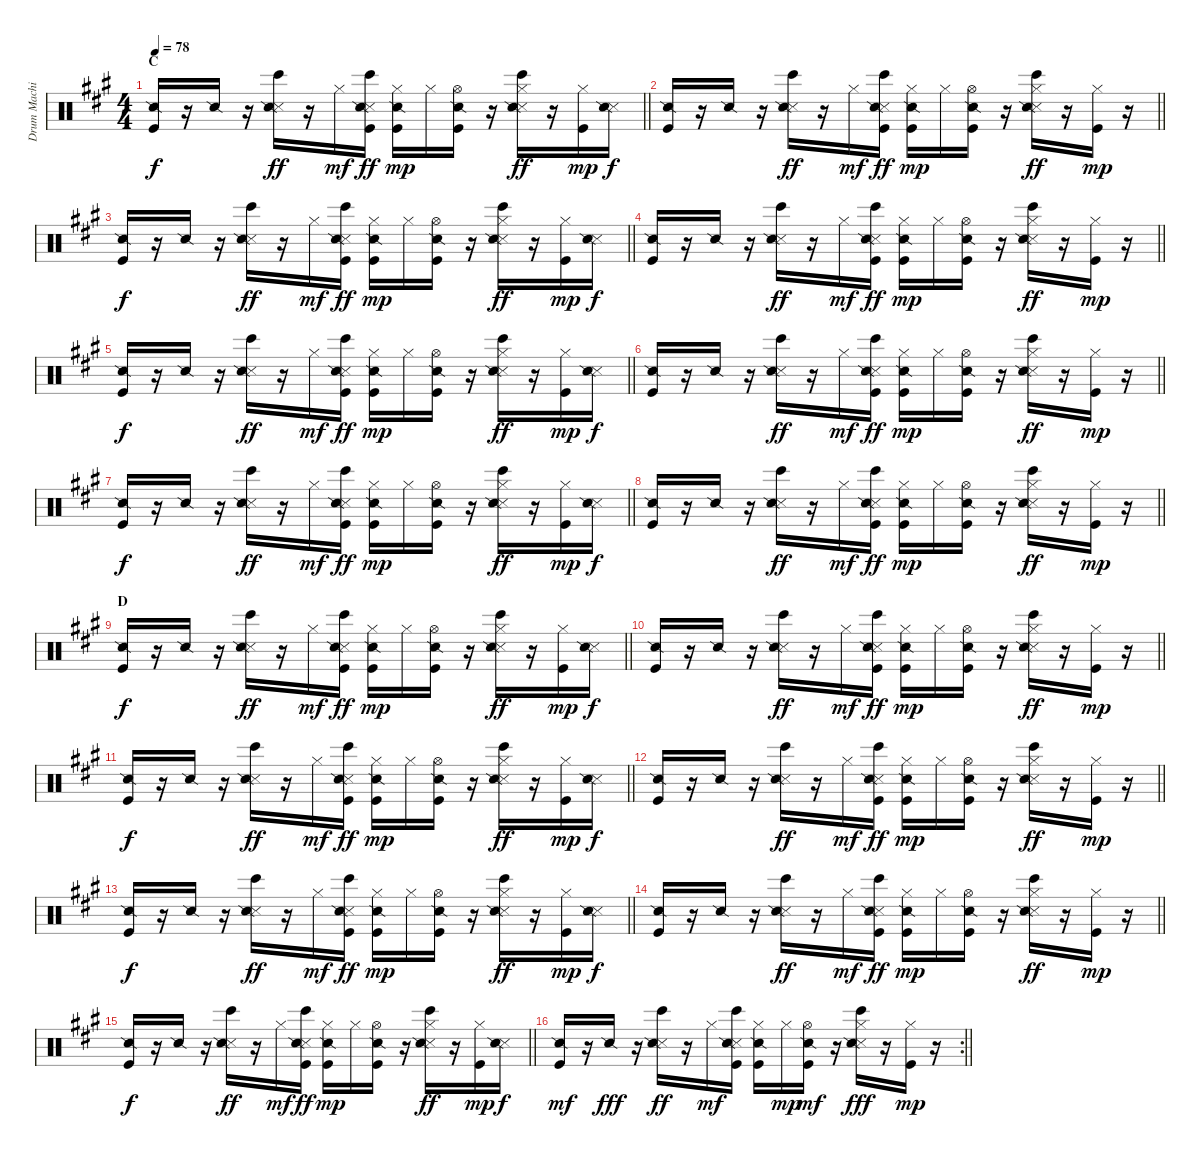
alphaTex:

\track ("Drum Machine" "Drum Machi") {instrument percussion}
\staff {score}
\articulation defaults
\ts (4 4)
\section ("" "C")
\tempo 78
\clef neutral
\barLineRight lightlight
\ks a
("Snare (side stick) 2" "Kick (hit)").16{dy f} r.16 "Snare (side stick) 2".16 r.16 ("Bongo High (hit)" "Metronome (hit)" "Snare (side stick) 2").16{dy ff} r.16 "Hi-Hat (closed)".16{dy mf} ("Bongo High (hit)" "Metronome (hit)" "Snare (side stick) 2" "Kick (hit)").16{dy ff} ("Hi-Hat (closed)" "Snare (side stick) 2" "Kick (hit)").16{dy mp} "Hi-Hat (closed)".16 ("Hi-Hat (open)" "Snare (side stick) 2" "Kick (hit)").16 r.16 ("Hi-Hat (closed)" "Bongo High (hit)" "Metronome (hit)" "Snare (side stick) 2").16{dy ff} r.16 ("Hi-Hat (closed)" "Kick (hit)").16{dy mp} ("Metronome (hit)" "Snare (side stick) 2").16{dy f} |
\barLineRight lightlight
("Snare (side stick) 2" "Kick (hit)").16 r.16 "Snare (side stick) 2".16 r.16 ("Bongo High (hit)" "Metronome (hit)" "Snare (side stick) 2").16{dy ff} r.16 "Hi-Hat (closed)".16{dy mf} ("Bongo High (hit)" "Metronome (hit)" "Snare (side stick) 2" "Kick (hit)").16{dy ff} ("Hi-Hat (closed)" "Snare (side stick) 2" "Kick (hit)").16{dy mp} "Hi-Hat (closed)".16 ("Hi-Hat (open)" "Snare (side stick) 2" "Kick (hit)").16 r.16 ("Hi-Hat (closed)" "Bongo High (hit)" "Metronome (hit)" "Snare (side stick) 2").16{dy ff} r.16 ("Hi-Hat (closed)" "Kick (hit)").16{dy mp} r.16 |
\barLineRight lightlight
("Snare (side stick) 2" "Kick (hit)").16{dy f} r.16 "Snare (side stick) 2".16 r.16 ("Bongo High (hit)" "Metronome (hit)" "Snare (side stick) 2").16{dy ff} r.16 "Hi-Hat (closed)".16{dy mf} ("Bongo High (hit)" "Metronome (hit)" "Snare (side stick) 2" "Kick (hit)").16{dy ff} ("Hi-Hat (closed)" "Snare (side stick) 2" "Kick (hit)").16{dy mp} "Hi-Hat (closed)".16 ("Hi-Hat (open)" "Snare (side stick) 2" "Kick (hit)").16 r.16 ("Hi-Hat (closed)" "Bongo High (hit)" "Metronome (hit)" "Snare (side stick) 2").16{dy ff} r.16 ("Hi-Hat (closed)" "Kick (hit)").16{dy mp} ("Metronome (hit)" "Snare (side stick) 2").16{dy f} |
\barLineRight lightlight
("Snare (side stick) 2" "Kick (hit)").16 r.16 "Snare (side stick) 2".16 r.16 ("Bongo High (hit)" "Metronome (hit)" "Snare (side stick) 2").16{dy ff} r.16 "Hi-Hat (closed)".16{dy mf} ("Bongo High (hit)" "Metronome (hit)" "Snare (side stick) 2" "Kick (hit)").16{dy ff} ("Hi-Hat (closed)" "Snare (side stick) 2" "Kick (hit)").16{dy mp} "Hi-Hat (closed)".16 ("Hi-Hat (open)" "Snare (side stick) 2" "Kick (hit)").16 r.16 ("Hi-Hat (closed)" "Bongo High (hit)" "Metronome (hit)" "Snare (side stick) 2").16{dy ff} r.16 ("Hi-Hat (closed)" "Kick (hit)").16{dy mp} r.16 |
\barLineRight lightlight
("Snare (side stick) 2" "Kick (hit)").16{dy f} r.16 "Snare (side stick) 2".16 r.16 ("Bongo High (hit)" "Metronome (hit)" "Snare (side stick) 2").16{dy ff} r.16 "Hi-Hat (closed)".16{dy mf} ("Bongo High (hit)" "Metronome (hit)" "Snare (side stick) 2" "Kick (hit)").16{dy ff} ("Hi-Hat (closed)" "Snare (side stick) 2" "Kick (hit)").16{dy mp} "Hi-Hat (closed)".16 ("Hi-Hat (open)" "Snare (side stick) 2" "Kick (hit)").16 r.16 ("Hi-Hat (closed)" "Bongo High (hit)" "Metronome (hit)" "Snare (side stick) 2").16{dy ff} r.16 ("Hi-Hat (closed)" "Kick (hit)").16{dy mp} ("Metronome (hit)" "Snare (side stick) 2").16{dy f} |
\barLineRight lightlight
("Snare (side stick) 2" "Kick (hit)").16 r.16 "Snare (side stick) 2".16 r.16 ("Bongo High (hit)" "Metronome (hit)" "Snare (side stick) 2").16{dy ff} r.16 "Hi-Hat (closed)".16{dy mf} ("Bongo High (hit)" "Metronome (hit)" "Snare (side stick) 2" "Kick (hit)").16{dy ff} ("Hi-Hat (closed)" "Snare (side stick) 2" "Kick (hit)").16{dy mp} "Hi-Hat (closed)".16 ("Hi-Hat (open)" "Snare (side stick) 2" "Kick (hit)").16 r.16 ("Hi-Hat (closed)" "Bongo High (hit)" "Metronome (hit)" "Snare (side stick) 2").16{dy ff} r.16 ("Hi-Hat (closed)" "Kick (hit)").16{dy mp} r.16 |
\barLineRight lightlight
("Snare (side stick) 2" "Kick (hit)").16{dy f} r.16 "Snare (side stick) 2".16 r.16 ("Bongo High (hit)" "Metronome (hit)" "Snare (side stick) 2").16{dy ff} r.16 "Hi-Hat (closed)".16{dy mf} ("Bongo High (hit)" "Metronome (hit)" "Snare (side stick) 2" "Kick (hit)").16{dy ff} ("Hi-Hat (closed)" "Snare (side stick) 2" "Kick (hit)").16{dy mp} "Hi-Hat (closed)".16 ("Hi-Hat (open)" "Snare (side stick) 2" "Kick (hit)").16 r.16 ("Hi-Hat (closed)" "Bongo High (hit)" "Metronome (hit)" "Snare (side stick) 2").16{dy ff} r.16 ("Hi-Hat (closed)" "Kick (hit)").16{dy mp} ("Metronome (hit)" "Snare (side stick) 2").16{dy f} |
\barLineRight lightlight
("Snare (side stick) 2" "Kick (hit)").16 r.16 "Snare (side stick) 2".16 r.16 ("Bongo High (hit)" "Metronome (hit)" "Snare (side stick) 2").16{dy ff} r.16 "Hi-Hat (closed)".16{dy mf} ("Bongo High (hit)" "Metronome (hit)" "Snare (side stick) 2" "Kick (hit)").16{dy ff} ("Hi-Hat (closed)" "Snare (side stick) 2" "Kick (hit)").16{dy mp} "Hi-Hat (closed)".16 ("Hi-Hat (open)" "Snare (side stick) 2" "Kick (hit)").16 r.16 ("Hi-Hat (closed)" "Bongo High (hit)" "Metronome (hit)" "Snare (side stick) 2").16{dy ff} r.16 ("Hi-Hat (closed)" "Kick (hit)").16{dy mp} r.16 |
\section ("" "D")
\barLineRight lightlight
("Snare (side stick) 2" "Kick (hit)").16{dy f} r.16 "Snare (side stick) 2".16 r.16 ("Bongo High (hit)" "Metronome (hit)" "Snare (side stick) 2").16{dy ff} r.16 "Hi-Hat (closed)".16{dy mf} ("Bongo High (hit)" "Metronome (hit)" "Snare (side stick) 2" "Kick (hit)").16{dy ff} ("Hi-Hat (closed)" "Snare (side stick) 2" "Kick (hit)").16{dy mp} "Hi-Hat (closed)".16 ("Hi-Hat (open)" "Snare (side stick) 2" "Kick (hit)").16 r.16 ("Hi-Hat (closed)" "Bongo High (hit)" "Metronome (hit)" "Snare (side stick) 2").16{dy ff} r.16 ("Hi-Hat (closed)" "Kick (hit)").16{dy mp} ("Metronome (hit)" "Snare (side stick) 2").16{dy f} |
\barLineRight lightlight
("Snare (side stick) 2" "Kick (hit)").16 r.16 "Snare (side stick) 2".16 r.16 ("Bongo High (hit)" "Metronome (hit)" "Snare (side stick) 2").16{dy ff} r.16 "Hi-Hat (closed)".16{dy mf} ("Bongo High (hit)" "Metronome (hit)" "Snare (side stick) 2" "Kick (hit)").16{dy ff} ("Hi-Hat (closed)" "Snare (side stick) 2" "Kick (hit)").16{dy mp} "Hi-Hat (closed)".16 ("Hi-Hat (open)" "Snare (side stick) 2" "Kick (hit)").16 r.16 ("Hi-Hat (closed)" "Bongo High (hit)" "Metronome (hit)" "Snare (side stick) 2").16{dy ff} r.16 ("Hi-Hat (closed)" "Kick (hit)").16{dy mp} r.16 |
\barLineRight lightlight
("Snare (side stick) 2" "Kick (hit)").16{dy f} r.16 "Snare (side stick) 2".16 r.16 ("Bongo High (hit)" "Metronome (hit)" "Snare (side stick) 2").16{dy ff} r.16 "Hi-Hat (closed)".16{dy mf} ("Bongo High (hit)" "Metronome (hit)" "Snare (side stick) 2" "Kick (hit)").16{dy ff} ("Hi-Hat (closed)" "Snare (side stick) 2" "Kick (hit)").16{dy mp} "Hi-Hat (closed)".16 ("Hi-Hat (open)" "Snare (side stick) 2" "Kick (hit)").16 r.16 ("Hi-Hat (closed)" "Bongo High (hit)" "Metronome (hit)" "Snare (side stick) 2").16{dy ff} r.16 ("Hi-Hat (closed)" "Kick (hit)").16{dy mp} ("Metronome (hit)" "Snare (side stick) 2").16{dy f} |
\barLineRight lightlight
("Snare (side stick) 2" "Kick (hit)").16 r.16 "Snare (side stick) 2".16 r.16 ("Bongo High (hit)" "Metronome (hit)" "Snare (side stick) 2").16{dy ff} r.16 "Hi-Hat (closed)".16{dy mf} ("Bongo High (hit)" "Metronome (hit)" "Snare (side stick) 2" "Kick (hit)").16{dy ff} ("Hi-Hat (closed)" "Snare (side stick) 2" "Kick (hit)").16{dy mp} "Hi-Hat (closed)".16 ("Hi-Hat (open)" "Snare (side stick) 2" "Kick (hit)").16 r.16 ("Hi-Hat (closed)" "Bongo High (hit)" "Metronome (hit)" "Snare (side stick) 2").16{dy ff} r.16 ("Hi-Hat (closed)" "Kick (hit)").16{dy mp} r.16 |
\barLineRight lightlight
("Snare (side stick) 2" "Kick (hit)").16{dy f} r.16 "Snare (side stick) 2".16 r.16 ("Bongo High (hit)" "Metronome (hit)" "Snare (side stick) 2").16{dy ff} r.16 "Hi-Hat (closed)".16{dy mf} ("Bongo High (hit)" "Metronome (hit)" "Snare (side stick) 2" "Kick (hit)").16{dy ff} ("Hi-Hat (closed)" "Snare (side stick) 2" "Kick (hit)").16{dy mp} "Hi-Hat (closed)".16 ("Hi-Hat (open)" "Snare (side stick) 2" "Kick (hit)").16 r.16 ("Hi-Hat (closed)" "Bongo High (hit)" "Metronome (hit)" "Snare (side stick) 2").16{dy ff} r.16 ("Hi-Hat (closed)" "Kick (hit)").16{dy mp} ("Metronome (hit)" "Snare (side stick) 2").16{dy f} |
\barLineRight lightlight
("Snare (side stick) 2" "Kick (hit)").16 r.16 "Snare (side stick) 2".16 r.16 ("Bongo High (hit)" "Metronome (hit)" "Snare (side stick) 2").16{dy ff} r.16 "Hi-Hat (closed)".16{dy mf} ("Bongo High (hit)" "Metronome (hit)" "Snare (side stick) 2" "Kick (hit)").16{dy ff} ("Hi-Hat (closed)" "Snare (side stick) 2" "Kick (hit)").16{dy mp} "Hi-Hat (closed)".16 ("Hi-Hat (open)" "Snare (side stick) 2" "Kick (hit)").16 r.16 ("Hi-Hat (closed)" "Bongo High (hit)" "Metronome (hit)" "Snare (side stick) 2").16{dy ff} r.16 ("Hi-Hat (closed)" "Kick (hit)").16{dy mp} r.16 |
\barLineRight lightlight
("Snare (side stick) 2" "Kick (hit)").16{dy f} r.16 "Snare (side stick) 2".16 r.16 ("Bongo High (hit)" "Metronome (hit)" "Snare (side stick) 2").16{dy ff} r.16 "Hi-Hat (closed)".16{dy mf} ("Bongo High (hit)" "Metronome (hit)" "Snare (side stick) 2" "Kick (hit)").16{dy ff} ("Hi-Hat (closed)" "Snare (side stick) 2" "Kick (hit)").16{dy mp} "Hi-Hat (closed)".16 ("Hi-Hat (open)" "Snare (side stick) 2" "Kick (hit)").16 r.16 ("Hi-Hat (closed)" "Bongo High (hit)" "Metronome (hit)" "Snare (side stick) 2").16{dy ff} r.16 ("Hi-Hat (closed)" "Kick (hit)").16{dy mp} ("Metronome (hit)" "Snare (side stick) 2").16{dy f} |
\rc 2
\barLineRight lightlight
("Snare (side stick) 2" "Kick (hit)").16{dy mf} r.16 "Snare (side stick) 2".16{dy fff} r.16 ("Bongo High (hit)" "Metronome (hit)" "Snare (side stick) 2").16{dy ff} r.16 "Hi-Hat (closed)".16{dy mf} ("Bongo High (hit)" "Metronome (hit)" "Snare (side stick) 2" "Kick (hit)").16 ("Hi-Hat (closed)" "Snare (side stick) 2" "Kick (hit)").16 "Hi-Hat (closed)".16{dy mp} ("Hi-Hat (open)" "Snare (side stick) 2" "Kick (hit)").16{dy mf} r.16 ("Hi-Hat (closed)" "Bongo High (hit)" "Metronome (hit)" "Snare (side stick) 2").16{dy fff} r.16 ("Hi-Hat (closed)" "Kick (hit)").16{dy mp} r.16
